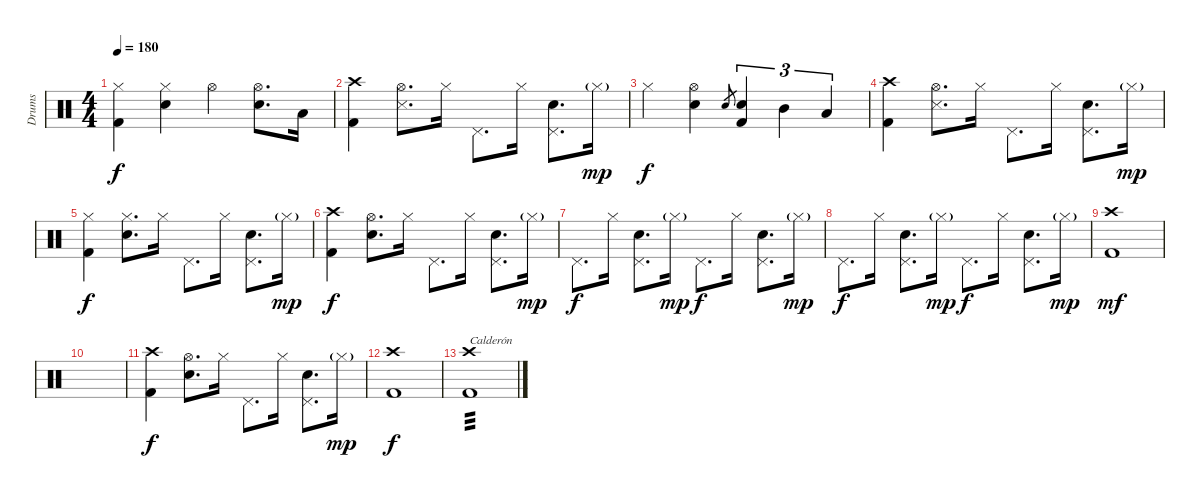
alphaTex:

\track ("Drums" "Drums") {instrument percussion}
\staff {score}
\articulation defaults
\ts (4 4)
\tempo 180
\clef neutral
\ks c
("Hi-Hat (closed)" "Kick (hit) 2").4{dy f} ("Hi-Hat (closed)" "Snare (hit) 2").4 "Hi-Hat (open)".4 ("Hi-Hat (open)" "Snare (hit) 2").8{d} "Low Tom (hit)".16 |
("Crash high (hit)" "Kick (hit) 2").4 ("Hi-Hat (open)" "Snare (side stick) 3").8{d} "Hi-Hat (closed)".16 "Pedal Hi-Hat (hit)".8{d} "Hi-Hat (closed)".16 ("Pedal Hi-Hat (hit)" "Snare (hit) 2").8{d} "Hi-Hat (closed)"{g}.16{dy mp} |
"Hi-Hat (closed)".4{dy f} ("Hi-Hat (open)" "Snare (hit) 2").4 "Snare (hit) 2".8{gr} ("Snare (hit) 2" "Kick (hit) 2").4{tu (3 2)} "Mid Tom (hit)".4{tu (3 2)} "Low Tom (hit)".4{tu (3 2)} |
("Crash high (hit)" "Kick (hit) 2").4 ("Hi-Hat (open)" "Snare (side stick) 3").8{d} "Hi-Hat (closed)".16 "Pedal Hi-Hat (hit)".8{d} "Hi-Hat (closed)".16 ("Pedal Hi-Hat (hit)" "Snare (hit) 2").8{d} "Hi-Hat (closed)"{g}.16{dy mp} |
("Hi-Hat (closed)" "Kick (hit) 2").4{dy f} ("Hi-Hat (closed)" "Snare (hit) 2").8{d} "Hi-Hat (closed)".16 "Pedal Hi-Hat (hit)".8{d} "Hi-Hat (closed)".16 ("Pedal Hi-Hat (hit)" "Snare (hit) 2").8{d} "Hi-Hat (closed)"{g}.16{dy mp} |
("Crash high (hit)" "Kick (hit) 2").4{dy f} ("Hi-Hat (open)" "Snare (hit) 2").8{d} "Hi-Hat (closed)".16 "Pedal Hi-Hat (hit)".8{d} "Hi-Hat (closed)".16 ("Pedal Hi-Hat (hit)" "Snare (hit) 2").8{d} "Hi-Hat (closed)"{g}.16{dy mp} |
"Pedal Hi-Hat (hit)".8{d dy f} "Hi-Hat (closed)".16 ("Pedal Hi-Hat (hit)" "Snare (hit) 2").8{d} "Hi-Hat (closed)"{g}.16{dy mp} "Pedal Hi-Hat (hit)".8{d dy f} "Hi-Hat (closed)".16 ("Pedal Hi-Hat (hit)" "Snare (hit) 2").8{d} "Hi-Hat (closed)"{g}.16{dy mp} |
"Pedal Hi-Hat (hit)".8{d dy f} "Hi-Hat (closed)".16 ("Pedal Hi-Hat (hit)" "Snare (hit) 2").8{d} "Hi-Hat (closed)"{g}.16{dy mp} "Pedal Hi-Hat (hit)".8{d dy f} "Hi-Hat (closed)".16 ("Pedal Hi-Hat (hit)" "Snare (hit) 2").8{d} "Hi-Hat (closed)"{g}.16{dy mp} |
("Crash high (hit)" "Kick (hit) 2").1{dy mf} |
|
("Crash high (hit)" "Kick (hit) 2").4{dy f} ("Hi-Hat (open)" "Snare (hit) 2").8{d} "Hi-Hat (closed)".16 "Pedal Hi-Hat (hit)".8{d} "Hi-Hat (closed)".16 ("Pedal Hi-Hat (hit)" "Snare (hit) 2").8{d} "Hi-Hat (closed)"{g}.16{dy mp} |
("Crash high (hit)" "Kick (hit) 2").1{dy f} |
("Crash high (hit)" "Kick (hit) 2").1{txt "Calderón" tp 3}
